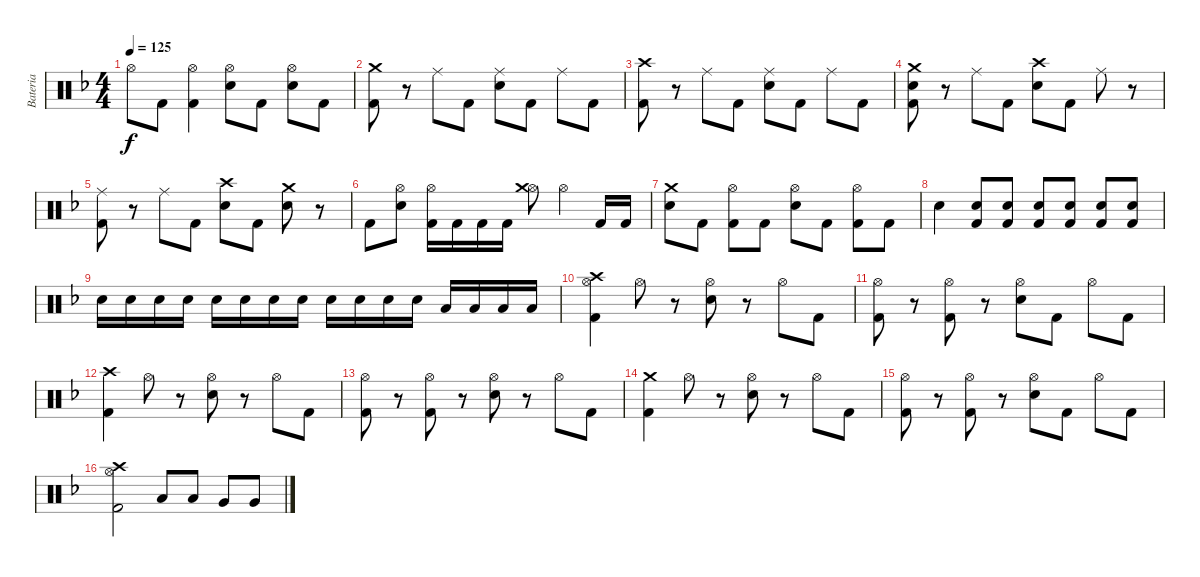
\track ("Bateria" "Bateria") {instrument percussion}
\staff {score}
\articulation defaults
\ts (4 4)
\tempo 125
\clef neutral
\ks f "Hi-Hat (open)".8{dy f} "Kick (hit) 2".8
("Hi-Hat (open)" "Kick (hit) 2").4 ("Hi-Hat (open)" "Electric Snare (hit)").8 "Kick (hit) 2".8 ("Hi-Hat (open)" "Electric Snare (hit)").8 "Kick (hit) 2".8 |
("Crash medium (hit)" "Kick (hit) 2").8 r.8 "Ride (middle)".8 "Kick (hit) 2".8 ("Ride (middle)" "Electric Snare (hit)").8 "Kick (hit) 2".8 "Ride (middle)".8 "Kick (hit) 2".8 |
("Crash high (hit)" "Kick (hit) 2").8 r.8 "Ride (middle)".8 "Kick (hit) 2".8 ("Ride (middle)" "Electric Snare (hit)").8 "Kick (hit) 2".8 "Ride (middle)".8 "Kick (hit) 2".8 |
("Crash medium (hit)" "Electric Snare (hit)" "Kick (hit) 2").8 r.8 "Ride (middle)".8 "Kick (hit) 2".8 ("Crash high (hit)" "Electric Snare (hit)").8 "Kick (hit) 2".8 "Ride (middle)".8 r.8 |
("Ride (middle)" "Kick (hit) 2").8 r.8 "Ride (middle)".8 "Kick (hit) 2".8 ("Crash high (hit)" "Electric Snare (hit)").8 "Kick (hit) 2".8 ("Crash medium (hit)" "Electric Snare (hit)").8 r.8 |
"Kick (hit) 2".8 ("Hi-Hat (open)" "Electric Snare (hit)").8 ("Hi-Hat (open)" "Kick (hit) 2").16 "Kick (hit) 2".16 "Kick (hit) 2".16 "Kick (hit) 2".16 ("Hi-Hat (open)" "Crash medium (hit)").8 "Hi-Hat (open)".4 "Kick (hit) 2".16 "Kick (hit) 2".16 |
("Electric Snare (hit)" "Crash medium (hit)").8 "Kick (hit) 2".8 ("Hi-Hat (open)" "Kick (hit) 2").8 "Kick (hit) 2".8 ("Hi-Hat (open)" "Electric Snare (hit)").8 "Kick (hit) 2".8 ("Hi-Hat (open)" "Kick (hit) 2").8 "Kick (hit) 2".8 |
"Electric Snare (hit)".4 ("Electric Snare (hit)" "Kick (hit) 2").8 ("Electric Snare (hit)" "Kick (hit) 2").8 ("Electric Snare (hit)" "Kick (hit) 2").8 ("Electric Snare (hit)" "Kick (hit) 2").8 ("Electric Snare (hit)" "Kick (hit) 2").8 ("Electric Snare (hit)" "Kick (hit) 2").8 |
"Electric Snare (hit)".16 "Electric Snare (hit)".16 "Electric Snare (hit)".16 "Electric Snare (hit)".16 "Electric Snare (hit)".16 "Electric Snare (hit)".16 "Electric Snare (hit)".16 "Electric Snare (hit)".16 "Snare (hit) 2".16 "Snare (hit) 2".16 "Snare (hit) 2".16 "Snare (hit) 2".16 "Low Tom (hit)".16 "Low Tom (hit)".16 "Low Floor Tom (hit)".16 "Low Floor Tom (hit)".16 |
("Hi-Hat (open)" "Crash high (hit)" "Kick (hit) 2").4 "Hi-Hat (open)".8 r.8 ("Hi-Hat (open)" "Electric Snare (hit)").8 r.8 "Hi-Hat (open)".8 "Kick (hit) 2".8 |
("Hi-Hat (open)" "Kick (hit) 2").8 r.8 ("Hi-Hat (open)" "Kick (hit) 2").8 r.8 ("Hi-Hat (open)" "Electric Snare (hit)").8 "Kick (hit) 2".8 "Hi-Hat (open)".8 "Kick (hit) 2".8 |
("Crash high (hit)" "Kick (hit) 2").4 "Hi-Hat (open)".8 r.8 ("Hi-Hat (open)" "Electric Snare (hit)").8 r.8 "Hi-Hat (open)".8 "Kick (hit) 2".8 |
("Hi-Hat (open)" "Kick (hit) 2").8 r.8 ("Hi-Hat (open)" "Kick (hit) 2").8 r.8 ("Hi-Hat (open)" "Electric Snare (hit)").8 r.8 "Hi-Hat (open)".8 "Kick (hit) 2".8 |
("Crash medium (hit)" "Kick (hit) 2").4 "Hi-Hat (open)".8 r.8 ("Hi-Hat (open)" "Electric Snare (hit)").8 r.8 "Hi-Hat (open)".8 "Kick (hit) 2".8 |
("Hi-Hat (open)" "Kick (hit) 2").8 r.8 ("Hi-Hat (open)" "Kick (hit) 2").8 r.8 ("Hi-Hat (open)" "Electric Snare (hit)").8 "Kick (hit) 2".8 "Hi-Hat (open)".8 "Kick (hit) 2".8 |
("Hi-Hat (open)" "Crash high (hit)" "Kick (hit) 2").2 "Low Tom (hit)".8 "Low Tom (hit)".8 "Very Low Tom (hit)".8 "Very Low Tom (hit)".8
